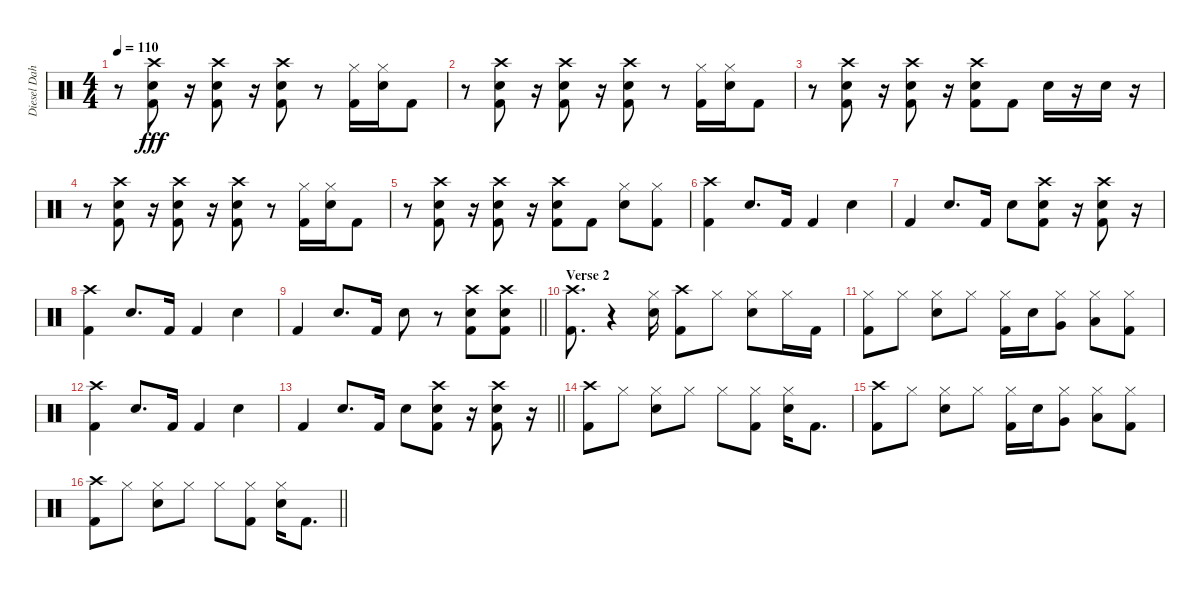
\track ("Diesel Dahl" "Diesel Dah") {instrument percussion}
\staff {score}
\articulation defaults
\ts (4 4)
\tempo 110
\clef neutral
\ks c
r.8{dy fff} ("Crash high (hit)" "Snare (hit) 2" "Kick (hit) 2").8 r.16 ("Crash high (hit)" "Snare (hit) 2" "Kick (hit) 2").8 r.16 ("Crash high (hit)" "Snare (hit) 2" "Kick (hit) 2").8 r.8 ("Hi-Hat (closed)" "Kick (hit) 2").16 ("Hi-Hat (closed)" "Snare (hit) 2").16 "Kick (hit) 2".8 |
r.8 ("Crash high (hit)" "Snare (hit) 2" "Kick (hit) 2").8 r.16 ("Crash high (hit)" "Snare (hit) 2" "Kick (hit) 2").8 r.16 ("Crash high (hit)" "Snare (hit) 2" "Kick (hit) 2").8 r.8 ("Hi-Hat (closed)" "Kick (hit) 2").16 ("Hi-Hat (closed)" "Snare (hit) 2").16 "Kick (hit) 2".8 |
r.8 ("Crash high (hit)" "Snare (hit) 2" "Kick (hit) 2").8 r.16 ("Crash high (hit)" "Snare (hit) 2" "Kick (hit) 2").8 r.16 ("Crash high (hit)" "Snare (hit) 2" "Kick (hit) 2").8 "Kick (hit) 2".8 "Snare (hit) 2".16 r.16 "Snare (hit) 2".16 r.16 |
r.8 ("Crash high (hit)" "Snare (hit) 2" "Kick (hit) 2").8 r.16 ("Crash high (hit)" "Snare (hit) 2" "Kick (hit) 2").8 r.16 ("Crash high (hit)" "Snare (hit) 2" "Kick (hit) 2").8 r.8 ("Hi-Hat (closed)" "Kick (hit) 2").16 ("Hi-Hat (closed)" "Snare (hit) 2").16 "Kick (hit) 2".8 |
r.8 ("Crash high (hit)" "Snare (hit) 2" "Kick (hit) 2").8 r.16 ("Crash high (hit)" "Snare (hit) 2" "Kick (hit) 2").8 r.16 ("Crash high (hit)" "Snare (hit) 2" "Kick (hit) 2").8 "Kick (hit) 2".8 ("Hi-Hat (closed)" "Snare (hit) 2").8 ("Hi-Hat (closed)" "Kick (hit) 2").8 |
("Crash high (hit)" "Kick (hit) 2").4 "Snare (hit) 2".8{d} "Kick (hit) 2".16 "Kick (hit) 2".4 "Snare (hit) 2".4 |
"Kick (hit) 2".4 "Snare (hit) 2".8{d} "Kick (hit) 2".16 "Snare (hit) 2".8 ("Crash high (hit)" "Snare (hit) 2" "Kick (hit) 2").8 r.16 ("Crash high (hit)" "Snare (hit) 2" "Kick (hit) 2").8 r.16 |
("Crash high (hit)" "Kick (hit) 2").4 "Snare (hit) 2".8{d} "Kick (hit) 2".16 "Kick (hit) 2".4 "Snare (hit) 2".4 |
\barLineRight lightlight "Kick (hit) 2".4 "Snare (hit) 2".8{d} "Kick (hit) 2".16 "Snare (hit) 2".8
r.8 ("Crash high (hit)" "Snare (hit) 2" "Kick (hit) 2").8 ("Crash high (hit)" "Snare (hit) 2" "Kick (hit) 2").8 |
\section ("" "Verse 2")
("Crash high (hit)" "Kick (hit) 2").8{d} r.4 ("Hi-Hat (closed)" "Snare (hit) 2").16 ("Crash high (hit)" "Kick (hit) 2").8 "Hi-Hat (closed)".8 ("Hi-Hat (closed)" "Snare (hit) 2").8 "Hi-Hat (closed)".16 "Kick (hit) 2".16 |
("Hi-Hat (closed)" "Kick (hit) 2").8 "Hi-Hat (closed)".8 ("Hi-Hat (closed)" "Snare (hit) 2").8 "Hi-Hat (closed)".8 ("Hi-Hat (closed)" "Kick (hit) 2").16 "Snare (hit) 2".16 ("Hi-Hat (closed)" "Very Low Tom (hit)").8 ("Hi-Hat (closed)" "Low Floor Tom (hit)").8 ("Hi-Hat (closed)" "Kick (hit) 2").8 |
("Crash high (hit)" "Kick (hit) 2").4 "Snare (hit) 2".8{d} "Kick (hit) 2".16 "Kick (hit) 2".4 "Snare (hit) 2".4 |
\barLineRight lightlight "Kick (hit) 2".4 "Snare (hit) 2".8{d} "Kick (hit) 2".16 "Snare (hit) 2".8
("Crash high (hit)" "Snare (hit) 2" "Kick (hit) 2").8 r.16 ("Crash high (hit)" "Snare (hit) 2" "Kick (hit) 2").8 r.16 |
("Crash high (hit)" "Kick (hit) 2").8 "Hi-Hat (closed)".8 ("Hi-Hat (closed)" "Snare (hit) 2").8 "Hi-Hat (closed)".8 "Hi-Hat (closed)".8 ("Hi-Hat (closed)" "Kick (hit) 2").8 ("Hi-Hat (closed)" "Snare (hit) 2").16 "Kick (hit) 2".8{d} |
("Crash high (hit)" "Kick (hit) 2").8 "Hi-Hat (closed)".8 ("Hi-Hat (closed)" "Snare (hit) 2").8 "Hi-Hat (closed)".8 ("Hi-Hat (closed)" "Kick (hit) 2").16 "Snare (hit) 2".16 ("Hi-Hat (closed)" "Very Low Tom (hit)").8 ("Hi-Hat (closed)" "Low Floor Tom (hit)").8 ("Hi-Hat (closed)" "Kick (hit) 2").8 |
\barLineRight lightlight
("Crash high (hit)" "Kick (hit) 2").8 "Hi-Hat (closed)".8 ("Hi-Hat (closed)" "Snare (hit) 2").8 "Hi-Hat (closed)".8 "Hi-Hat (closed)".8 ("Hi-Hat (closed)" "Kick (hit) 2").8 ("Hi-Hat (closed)" "Snare (hit) 2").16 "Kick (hit) 2".8{d}
